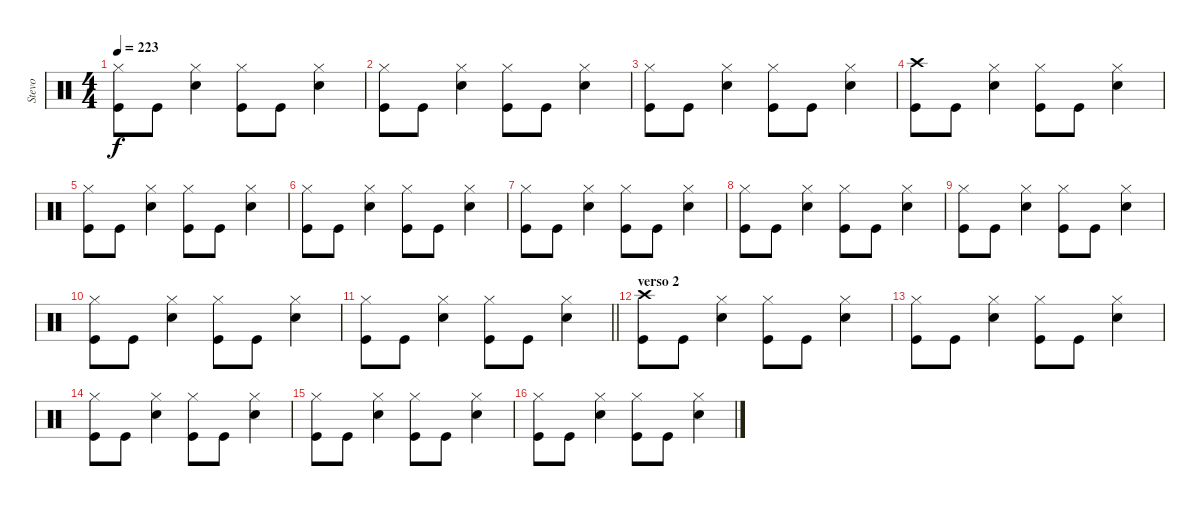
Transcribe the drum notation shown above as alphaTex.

\track ("Stevo" "Stevo") {instrument percussion}
\staff {score}
\articulation defaults
\ts (4 4)
\tempo 223
\clef neutral
\ks c
("Hi-Hat (closed)" "Kick (hit)").8{dy f} "Kick (hit)".8 ("Hi-Hat (closed)" "Electric Snare (hit)").4 ("Hi-Hat (closed)" "Kick (hit)").8 "Kick (hit)".8 ("Hi-Hat (closed)" "Electric Snare (hit)").4 |
("Hi-Hat (closed)" "Kick (hit)").8 "Kick (hit)".8 ("Hi-Hat (closed)" "Electric Snare (hit)").4 ("Hi-Hat (closed)" "Kick (hit)").8 "Kick (hit)".8 ("Hi-Hat (closed)" "Electric Snare (hit)").4 |
("Hi-Hat (closed)" "Kick (hit)").8 "Kick (hit)".8 ("Hi-Hat (closed)" "Electric Snare (hit)").4 ("Hi-Hat (closed)" "Kick (hit)").8 "Kick (hit)".8 ("Hi-Hat (closed)" "Electric Snare (hit)").4 |
("Crash high (hit)" "Kick (hit)").8 "Kick (hit)".8 ("Hi-Hat (closed)" "Electric Snare (hit)").4 ("Hi-Hat (closed)" "Kick (hit)").8 "Kick (hit)".8 ("Hi-Hat (closed)" "Electric Snare (hit)").4 |
("Hi-Hat (closed)" "Kick (hit)").8 "Kick (hit)".8 ("Hi-Hat (closed)" "Electric Snare (hit)").4 ("Hi-Hat (closed)" "Kick (hit)").8 "Kick (hit)".8 ("Hi-Hat (closed)" "Electric Snare (hit)").4 |
("Hi-Hat (closed)" "Kick (hit)").8 "Kick (hit)".8 ("Hi-Hat (closed)" "Electric Snare (hit)").4 ("Hi-Hat (closed)" "Kick (hit)").8 "Kick (hit)".8 ("Hi-Hat (closed)" "Electric Snare (hit)").4 |
("Hi-Hat (closed)" "Kick (hit)").8 "Kick (hit)".8 ("Hi-Hat (closed)" "Electric Snare (hit)").4 ("Hi-Hat (closed)" "Kick (hit)").8 "Kick (hit)".8 ("Hi-Hat (closed)" "Electric Snare (hit)").4 |
("Hi-Hat (closed)" "Kick (hit)").8 "Kick (hit)".8 ("Hi-Hat (closed)" "Electric Snare (hit)").4 ("Hi-Hat (closed)" "Kick (hit)").8 "Kick (hit)".8 ("Hi-Hat (closed)" "Electric Snare (hit)").4 |
("Hi-Hat (closed)" "Kick (hit)").8 "Kick (hit)".8 ("Hi-Hat (closed)" "Electric Snare (hit)").4 ("Hi-Hat (closed)" "Kick (hit)").8 "Kick (hit)".8 ("Hi-Hat (closed)" "Electric Snare (hit)").4 |
("Hi-Hat (closed)" "Kick (hit)").8 "Kick (hit)".8 ("Hi-Hat (closed)" "Electric Snare (hit)").4 ("Hi-Hat (closed)" "Kick (hit)").8 "Kick (hit)".8 ("Hi-Hat (closed)" "Electric Snare (hit)").4 |
\barLineRight lightlight
("Hi-Hat (closed)" "Kick (hit)").8 "Kick (hit)".8 ("Hi-Hat (closed)" "Electric Snare (hit)").4 ("Hi-Hat (closed)" "Kick (hit)").8 "Kick (hit)".8 ("Hi-Hat (closed)" "Electric Snare (hit)").4 |
\section ("" "verso 2")
("Crash high (hit)" "Kick (hit)").8 "Kick (hit)".8 ("Hi-Hat (closed)" "Electric Snare (hit)").4 ("Hi-Hat (closed)" "Kick (hit)").8 "Kick (hit)".8 ("Hi-Hat (closed)" "Electric Snare (hit)").4 |
("Hi-Hat (closed)" "Kick (hit)").8 "Kick (hit)".8 ("Hi-Hat (closed)" "Electric Snare (hit)").4 ("Hi-Hat (closed)" "Kick (hit)").8 "Kick (hit)".8 ("Hi-Hat (closed)" "Electric Snare (hit)").4 |
("Hi-Hat (closed)" "Kick (hit)").8 "Kick (hit)".8 ("Hi-Hat (closed)" "Electric Snare (hit)").4 ("Hi-Hat (closed)" "Kick (hit)").8 "Kick (hit)".8 ("Hi-Hat (closed)" "Electric Snare (hit)").4 |
("Hi-Hat (closed)" "Kick (hit)").8 "Kick (hit)".8 ("Hi-Hat (closed)" "Electric Snare (hit)").4 ("Hi-Hat (closed)" "Kick (hit)").8 "Kick (hit)".8 ("Hi-Hat (closed)" "Electric Snare (hit)").4 |
("Hi-Hat (closed)" "Kick (hit)").8 "Kick (hit)".8 ("Hi-Hat (closed)" "Electric Snare (hit)").4 ("Hi-Hat (closed)" "Kick (hit)").8 "Kick (hit)".8 ("Hi-Hat (closed)" "Electric Snare (hit)").4
